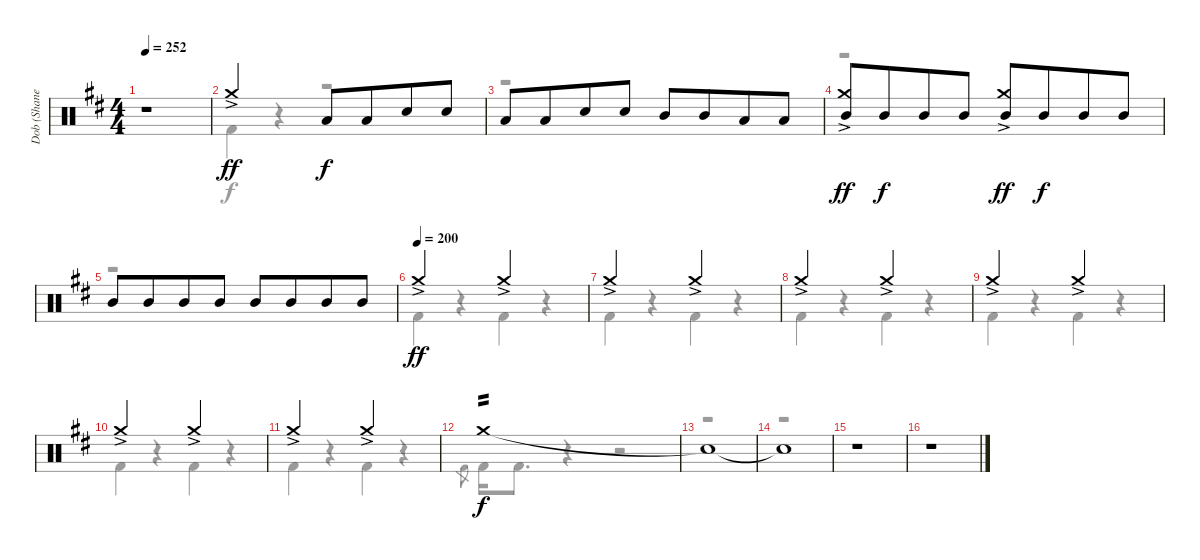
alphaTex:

\track ("Dob (Shane Gaalaas)" "Dob (Shane") {instrument percussion}
\staff {score}
\articulation defaults
\voice
\ts (4 4)
\tempo 252
\clef neutral
\ks d
r.1{dy ff} |
"Crash medium (hit)"{ac}.2 "Low Tom (hit)".8{dy f} "Low Tom (hit)".8{beam merge} "Electric Snare (hit)".8 "Electric Snare (hit)".8 |
"Low Tom (hit)".8 "Low Tom (hit)".8{beam merge} "Electric Snare (hit)".8 "Electric Snare (hit)".8 "Mid Tom (hit)".8 "Mid Tom (hit)".8{beam merge} "Low Tom (hit)".8 "Low Tom (hit)".8 |
("Crash medium (hit)"{ac} "Mid Tom (hit)").8{dy ff} "Mid Tom (hit)".8{dy f beam merge} "Mid Tom (hit)".8 "Mid Tom (hit)".8 ("Crash medium (hit)"{ac} "Mid Tom (hit)").8{dy ff} "Mid Tom (hit)".8{dy f beam merge} "Mid Tom (hit)".8 "Mid Tom (hit)".8 |
"Mid Tom (hit)".8 "Mid Tom (hit)".8{beam merge} "Mid Tom (hit)".8 "Mid Tom (hit)".8 "Mid Tom (hit)".8 "Mid Tom (hit)".8{beam merge} "Mid Tom (hit)".8 "Mid Tom (hit)".8 |
\tempo (200)
"Crash medium (hit)"{ac}.2{dy ff} "Crash medium (hit)"{ac}.2 |
"Crash medium (hit)"{ac}.2 "Crash medium (hit)"{ac}.2 |
"Crash medium (hit)"{ac}.2 "Crash medium (hit)"{ac}.2 |
"Crash medium (hit)"{ac}.2 "Crash medium (hit)"{ac}.2 |
"Crash medium (hit)"{ac}.2 "Crash medium (hit)"{ac}.2 |
"Crash medium (hit)"{ac}.2 "Crash medium (hit)"{ac}.2 |
"Crash medium (hit)".1{tp 2 dy f} |
"Snare (hit)"{t}.1 |
"Snare (hit)"{t}.1 |
r.1 |
r.1
\voice
\clef neutral
\ottava regular
\simile none
\ks d
r.1{dy f} |
"Kick (hit) 2".4 r.4 r.2 |
r.1 |
r.1 |
r.1 |
"Kick (hit) 2".4 r.4 "Kick (hit) 2".4 r.4 |
"Kick (hit) 2".4 r.4 "Kick (hit) 2".4 r.4 |
"Kick (hit) 2".4 r.4 "Kick (hit) 2".4 r.4 |
"Kick (hit) 2".4 r.4 "Kick (hit) 2".4 r.4 |
"Kick (hit) 2".4 r.4 "Kick (hit) 2".4 r.4 |
"Kick (hit) 2".4 r.4 "Kick (hit) 2".4 r.4 |
"Kick (hit) 2".8{gr} "Kick (hit) 2".16 "Kick (hit) 2".8{d} r.4 r.2 |
r.1 |
r.1 |
r.1 |
r.1
